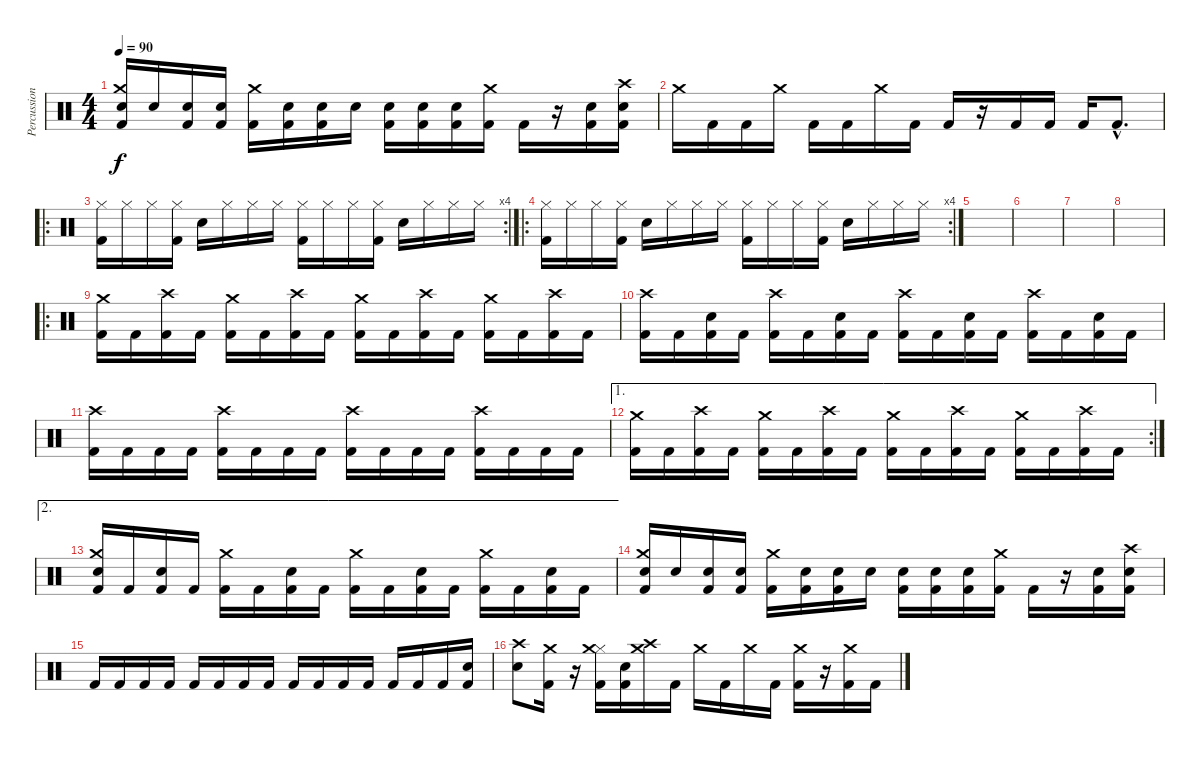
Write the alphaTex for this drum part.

\track ("Percussion" "Percussion") {instrument percussion}
\staff {score}
\articulation defaults
\ts (4 4)
\tempo 90
\clef neutral
\ks c
("Electric Snare (hit)" "Crash medium (hit)" "Kick (hit) 2").16{dy f} "Snare (hit)".16 ("Electric Snare (hit)" "Kick (hit) 2").16 ("Electric Snare (hit)" "Kick (hit) 2").16 ("Crash medium (hit)" "Kick (hit) 2").16 ("Electric Snare (hit)" "Kick (hit) 2").16 ("Electric Snare (hit)" "Kick (hit) 2").16 "Snare (hit)".16 ("Electric Snare (hit)" "Kick (hit) 2").16 ("Electric Snare (hit)" "Kick (hit) 2").16 ("Electric Snare (hit)" "Kick (hit) 2").16 ("Crash medium (hit)" "Kick (hit) 2").16 "Kick (hit) 2".16 r.16 ("Electric Snare (hit)" "Kick (hit) 2").16 ("Crash high (hit)" "Electric Snare (hit)" "Kick (hit) 2").16 |
"Crash medium (hit)".16 "Kick (hit) 2".16 "Kick (hit) 2".16 "Crash medium (hit)".16 "Kick (hit) 2".16 "Kick (hit) 2".16 "Crash medium (hit)".16 "Kick (hit) 2".16 "Kick (hit) 2".16 r.16 "Kick (hit) 2".16 "Kick (hit) 2".16 "Kick (hit) 2".16 "Kick (hit) 2"{hac}.8{d} |
\ro
\rc 4
("Hi-Hat (closed)" "Kick (hit) 2").16 "Hi-Hat (closed)".16 "Hi-Hat (closed)".16 ("Hi-Hat (closed)" "Kick (hit) 2").16 "Electric Snare (hit)".16 "Hi-Hat (closed)".16 "Hi-Hat (closed)".16 "Hi-Hat (closed)".16 ("Hi-Hat (closed)" "Kick (hit) 2").16 "Hi-Hat (closed)".16 "Hi-Hat (closed)".16 ("Hi-Hat (closed)" "Kick (hit) 2").16 "Electric Snare (hit)".16 "Hi-Hat (closed)".16 "Hi-Hat (closed)".16 "Hi-Hat (closed)".16 |
\ro
\rc 4
("Hi-Hat (closed)" "Kick (hit) 2").16 "Hi-Hat (closed)".16 "Hi-Hat (closed)".16 ("Hi-Hat (closed)" "Kick (hit) 2").16 "Electric Snare (hit)".16 "Hi-Hat (closed)".16 "Hi-Hat (closed)".16 "Hi-Hat (closed)".16 ("Hi-Hat (closed)" "Kick (hit) 2").16 "Hi-Hat (closed)".16 "Hi-Hat (closed)".16 ("Hi-Hat (closed)" "Kick (hit) 2").16 "Electric Snare (hit)".16 "Hi-Hat (closed)".16 "Hi-Hat (closed)".16 "Hi-Hat (closed)".16 |
|
|
|
|
\ro
("Crash medium (hit)" "Kick (hit) 2").16 "Kick (hit) 2".16 ("Crash high (hit)" "Kick (hit) 2").16 "Kick (hit) 2".16 ("Crash medium (hit)" "Kick (hit) 2").16 "Kick (hit) 2".16 ("Crash high (hit)" "Kick (hit) 2").16 "Kick (hit) 2".16 ("Crash medium (hit)" "Kick (hit) 2").16 "Kick (hit) 2".16 ("Crash high (hit)" "Kick (hit) 2").16 "Kick (hit) 2".16 ("Crash medium (hit)" "Kick (hit) 2").16 "Kick (hit) 2".16 ("Crash high (hit)" "Kick (hit) 2").16 "Kick (hit) 2".16 |
("Crash high (hit)" "Kick (hit) 2").16 "Kick (hit) 2".16 ("Electric Snare (hit)" "Kick (hit) 2").16 "Kick (hit) 2".16 ("Crash high (hit)" "Kick (hit) 2").16 "Kick (hit) 2".16 ("Electric Snare (hit)" "Kick (hit) 2").16 "Kick (hit) 2".16 ("Crash high (hit)" "Kick (hit) 2").16 "Kick (hit) 2".16 ("Electric Snare (hit)" "Kick (hit) 2").16 "Kick (hit) 2".16 ("Crash high (hit)" "Kick (hit) 2").16 "Kick (hit) 2".16 ("Electric Snare (hit)" "Kick (hit) 2").16 "Kick (hit) 2".16 |
("Crash high (hit)" "Kick (hit) 2").16 "Kick (hit) 2".16 "Kick (hit) 2".16 "Kick (hit) 2".16 ("Crash high (hit)" "Kick (hit) 2").16 "Kick (hit) 2".16 "Kick (hit) 2".16 "Kick (hit) 2".16 ("Crash high (hit)" "Kick (hit) 2").16 "Kick (hit) 2".16 "Kick (hit) 2".16 "Kick (hit) 2".16 ("Crash high (hit)" "Kick (hit) 2").16 "Kick (hit) 2".16 "Kick (hit) 2".16 "Kick (hit) 2".16 |
\ae 1
\rc 2
("Crash medium (hit)" "Kick (hit) 2").16 "Kick (hit) 2".16 ("Crash high (hit)" "Kick (hit) 2").16 "Kick (hit) 2".16 ("Crash medium (hit)" "Kick (hit) 2").16 "Kick (hit) 2".16 ("Crash high (hit)" "Kick (hit) 2").16 "Kick (hit) 2".16 ("Crash medium (hit)" "Kick (hit) 2").16 "Kick (hit) 2".16 ("Crash high (hit)" "Kick (hit) 2").16 "Kick (hit) 2".16 ("Crash medium (hit)" "Kick (hit) 2").16 "Kick (hit) 2".16 ("Crash high (hit)" "Kick (hit) 2").16 "Kick (hit) 2".16 |
\ae 2
("Crash medium (hit)" "Electric Snare (hit)" "Kick (hit) 2").16 "Kick (hit) 2".16 ("Electric Snare (hit)" "Kick (hit) 2").16 "Kick (hit) 2".16 ("Crash medium (hit)" "Kick (hit) 2").16 "Kick (hit) 2".16 ("Electric Snare (hit)" "Kick (hit) 2").16 "Kick (hit) 2".16 ("Crash medium (hit)" "Kick (hit) 2").16 "Kick (hit) 2".16 ("Electric Snare (hit)" "Kick (hit) 2").16 "Kick (hit) 2".16 ("Crash medium (hit)" "Kick (hit) 2").16 "Kick (hit) 2".16 ("Electric Snare (hit)" "Kick (hit) 2").16 "Kick (hit) 2".16 |
("Electric Snare (hit)" "Crash medium (hit)" "Kick (hit) 2").16 "Snare (hit)".16 ("Electric Snare (hit)" "Kick (hit) 2").16 ("Electric Snare (hit)" "Kick (hit) 2").16 ("Crash medium (hit)" "Kick (hit) 2").16 ("Electric Snare (hit)" "Kick (hit) 2").16 ("Electric Snare (hit)" "Kick (hit) 2").16 "Snare (hit)".16 ("Electric Snare (hit)" "Kick (hit) 2").16 ("Electric Snare (hit)" "Kick (hit) 2").16 ("Electric Snare (hit)" "Kick (hit) 2").16 ("Crash medium (hit)" "Kick (hit) 2").16 "Kick (hit) 2".16 r.16 ("Electric Snare (hit)" "Kick (hit) 2").16 ("Crash high (hit)" "Electric Snare (hit)" "Kick (hit) 2").16 |
"Kick (hit) 2".16 "Kick (hit) 2".16 "Kick (hit) 2".16 "Kick (hit) 2".16 "Kick (hit) 2".16 "Kick (hit) 2".16 "Kick (hit) 2".16 "Kick (hit) 2".16 "Kick (hit) 2".16 "Kick (hit) 2".16 "Kick (hit) 2".16 "Kick (hit) 2".16 "Kick (hit) 2".16 "Kick (hit) 2".16 "Kick (hit) 2".16 ("Electric Snare (hit)" "Kick (hit) 2").16 |
("Crash high (hit)" "Electric Snare (hit)").8 ("Crash medium (hit)" "Kick (hit) 2").16 r.16 ("Hi-Hat (closed)" "Crash medium (hit)" "Kick (hit) 2").16 ("Electric Snare (hit)" "Kick (hit) 2").16 ("Crash high (hit)" "Crash medium (hit)").16 "Kick (hit) 2".16 "Crash medium (hit)".16 "Kick (hit) 2".16 "Crash medium (hit)".16 "Kick (hit) 2".16 ("Crash medium (hit)" "Kick (hit) 2").16 r.16 ("Crash medium (hit)" "Kick (hit) 2").16 "Kick (hit) 2".16
